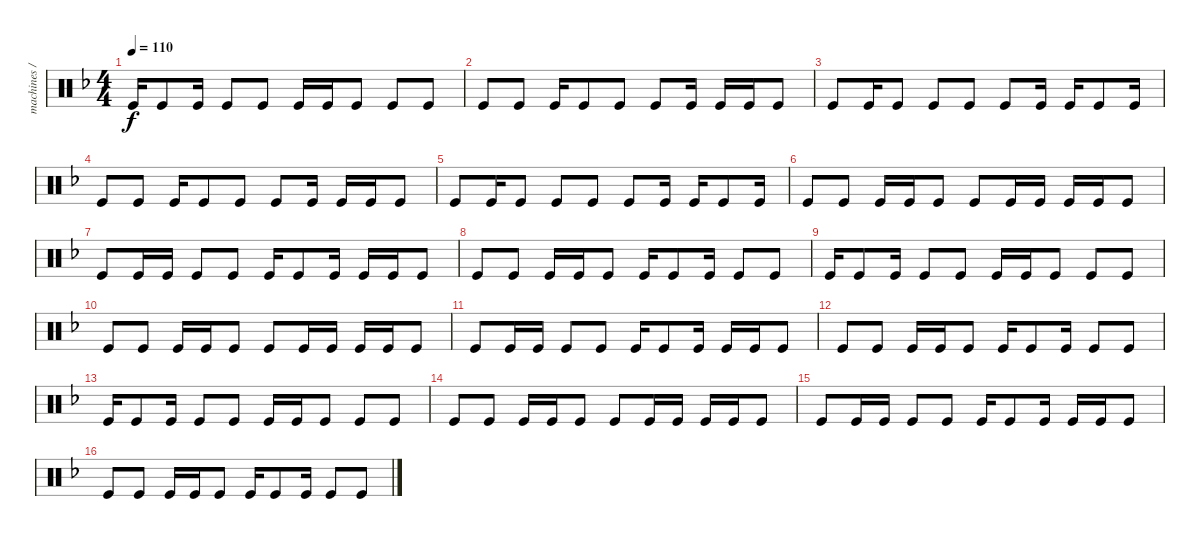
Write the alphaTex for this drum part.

\track ("machines / drum" "machines /") {instrument percussion}
\staff {score}
\articulation defaults
\ts (4 4)
\tempo 110
\clef neutral
\ks f "Kick (hit)".16{dy f} "Kick (hit)".8 "Kick (hit)".16 "Kick (hit)".8 "Kick (hit)".8 "Kick (hit)".16 "Kick (hit)".16 "Kick (hit)".8 "Kick (hit)".8 "Kick (hit)".8
|
"Kick (hit)".8 "Kick (hit)".8 "Kick (hit)".16 "Kick (hit)".8 "Kick (hit)".8 "Kick (hit)".8 "Kick (hit)".16 "Kick (hit)".16 "Kick (hit)".16 "Kick (hit)".8 |
"Kick (hit)".8 "Kick (hit)".16 "Kick (hit)".8 "Kick (hit)".8 "Kick (hit)".8 "Kick (hit)".8 "Kick (hit)".16 "Kick (hit)".16 "Kick (hit)".8 "Kick (hit)".16 |
"Kick (hit)".8 "Kick (hit)".8 "Kick (hit)".16 "Kick (hit)".8 "Kick (hit)".8 "Kick (hit)".8 "Kick (hit)".16 "Kick (hit)".16 "Kick (hit)".16 "Kick (hit)".8 |
"Kick (hit)".8 "Kick (hit)".16 "Kick (hit)".8 "Kick (hit)".8 "Kick (hit)".8 "Kick (hit)".8 "Kick (hit)".16 "Kick (hit)".16 "Kick (hit)".8 "Kick (hit)".16 |
"Kick (hit)".8 "Kick (hit)".8 "Kick (hit)".16 "Kick (hit)".16 "Kick (hit)".8 "Kick (hit)".8 "Kick (hit)".16 "Kick (hit)".16 "Kick (hit)".16 "Kick (hit)".16 "Kick (hit)".8 |
"Kick (hit)".8 "Kick (hit)".16 "Kick (hit)".16 "Kick (hit)".8 "Kick (hit)".8 "Kick (hit)".16 "Kick (hit)".8 "Kick (hit)".16 "Kick (hit)".16 "Kick (hit)".16 "Kick (hit)".8 |
"Kick (hit)".8 "Kick (hit)".8 "Kick (hit)".16 "Kick (hit)".16 "Kick (hit)".8 "Kick (hit)".16 "Kick (hit)".8 "Kick (hit)".16 "Kick (hit)".8 "Kick (hit)".8 |
"Kick (hit)".16 "Kick (hit)".8 "Kick (hit)".16 "Kick (hit)".8 "Kick (hit)".8 "Kick (hit)".16 "Kick (hit)".16 "Kick (hit)".8 "Kick (hit)".8 "Kick (hit)".8 |
"Kick (hit)".8 "Kick (hit)".8 "Kick (hit)".16 "Kick (hit)".16 "Kick (hit)".8 "Kick (hit)".8 "Kick (hit)".16 "Kick (hit)".16 "Kick (hit)".16 "Kick (hit)".16 "Kick (hit)".8 |
"Kick (hit)".8 "Kick (hit)".16 "Kick (hit)".16 "Kick (hit)".8 "Kick (hit)".8 "Kick (hit)".16 "Kick (hit)".8 "Kick (hit)".16 "Kick (hit)".16 "Kick (hit)".16 "Kick (hit)".8 |
"Kick (hit)".8 "Kick (hit)".8 "Kick (hit)".16 "Kick (hit)".16 "Kick (hit)".8 "Kick (hit)".16 "Kick (hit)".8 "Kick (hit)".16 "Kick (hit)".8 "Kick (hit)".8 |
"Kick (hit)".16 "Kick (hit)".8 "Kick (hit)".16 "Kick (hit)".8 "Kick (hit)".8 "Kick (hit)".16 "Kick (hit)".16 "Kick (hit)".8 "Kick (hit)".8 "Kick (hit)".8 |
"Kick (hit)".8 "Kick (hit)".8 "Kick (hit)".16 "Kick (hit)".16 "Kick (hit)".8 "Kick (hit)".8 "Kick (hit)".16 "Kick (hit)".16 "Kick (hit)".16 "Kick (hit)".16 "Kick (hit)".8 |
"Kick (hit)".8 "Kick (hit)".16 "Kick (hit)".16 "Kick (hit)".8 "Kick (hit)".8 "Kick (hit)".16 "Kick (hit)".8 "Kick (hit)".16 "Kick (hit)".16 "Kick (hit)".16 "Kick (hit)".8 |
"Kick (hit)".8 "Kick (hit)".8 "Kick (hit)".16 "Kick (hit)".16 "Kick (hit)".8 "Kick (hit)".16 "Kick (hit)".8 "Kick (hit)".16 "Kick (hit)".8 "Kick (hit)".8
